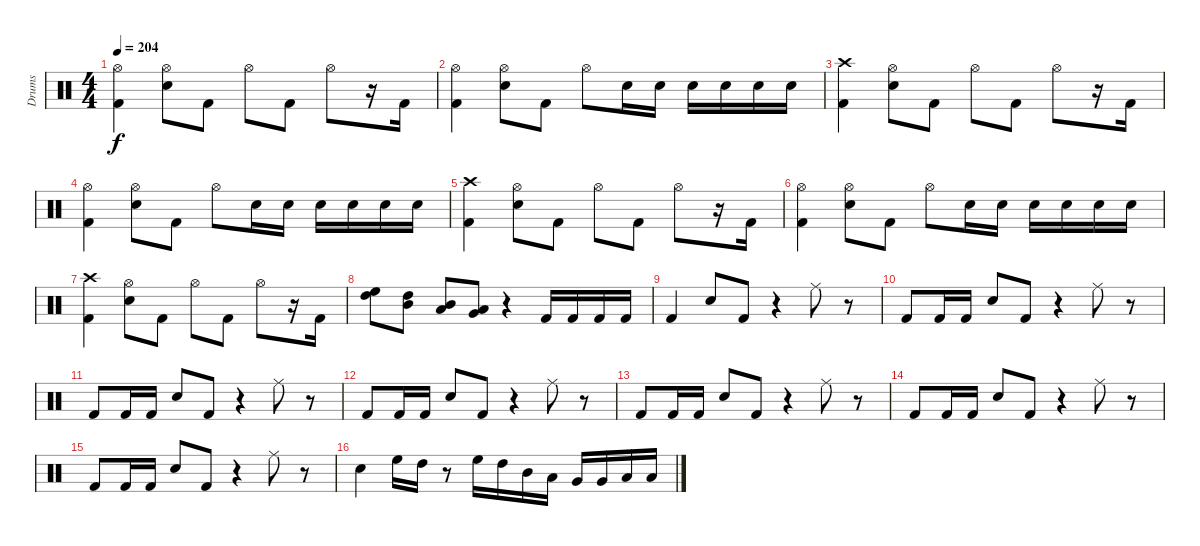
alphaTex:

\track ("Drums" "Drums") {instrument percussion}
\staff {score}
\articulation defaults
\ts (4 4)
\tempo 204
\clef neutral
\ks c
("Hi-Hat (open)" "Kick (hit) 2").4{dy f} ("Hi-Hat (open)" "Snare (hit) 2").8 "Kick (hit) 2".8 "Hi-Hat (open)".8 "Kick (hit) 2".8 "Hi-Hat (open)".8 r.16 "Kick (hit) 2".16 |
("Hi-Hat (open)" "Kick (hit) 2").4 ("Hi-Hat (open)" "Snare (hit) 2").8 "Kick (hit) 2".8 "Hi-Hat (open)".8 "Snare (hit) 2".16 "Snare (hit) 2".16 "Snare (hit) 2".16 "Snare (hit) 2".16 "Snare (hit) 2".16 "Snare (hit) 2".16 |
("Crash high (hit)" "Kick (hit) 2").4 ("Hi-Hat (open)" "Snare (hit) 2").8 "Kick (hit) 2".8 "Hi-Hat (open)".8 "Kick (hit) 2".8 "Hi-Hat (open)".8 r.16 "Kick (hit) 2".16 |
("Hi-Hat (open)" "Kick (hit) 2").4 ("Hi-Hat (open)" "Snare (hit) 2").8 "Kick (hit) 2".8 "Hi-Hat (open)".8 "Snare (hit) 2".16 "Snare (hit) 2".16 "Snare (hit) 2".16 "Snare (hit) 2".16 "Snare (hit) 2".16 "Snare (hit) 2".16 |
("Crash high (hit)" "Kick (hit) 2").4 ("Hi-Hat (open)" "Snare (hit) 2").8 "Kick (hit) 2".8 "Hi-Hat (open)".8 "Kick (hit) 2".8 "Hi-Hat (open)".8 r.16 "Kick (hit) 2".16 |
("Hi-Hat (open)" "Kick (hit) 2").4 ("Hi-Hat (open)" "Snare (hit) 2").8 "Kick (hit) 2".8 "Hi-Hat (open)".8 "Snare (hit) 2".16 "Snare (hit) 2".16 "Snare (hit) 2".16 "Snare (hit) 2".16 "Snare (hit) 2".16 "Snare (hit) 2".16 |
("Crash high (hit)" "Kick (hit) 2").4 ("Hi-Hat (open)" "Snare (hit) 2").8 "Kick (hit) 2".8 "Hi-Hat (open)".8 "Kick (hit) 2".8 "Hi-Hat (open)".8 r.16 "Kick (hit) 2".16 |
("High Floor Tom (hit)" "High Tom (hit)").8 ("High Tom (hit)" "Mid Tom (hit)").8 ("Mid Tom (hit)" "Low Tom (hit)").8 ("Low Tom (hit)" "Very Low Tom (hit)").8 r.4 "Kick (hit) 2".16 "Kick (hit) 2".16 "Kick (hit) 2".16 "Kick (hit) 2".16 |
"Kick (hit) 2".4 "Snare (hit) 2".8 "Kick (hit) 2".8 r.4 "Ride (middle)".8 r.8 |
"Kick (hit) 2".8 "Kick (hit) 2".16 "Kick (hit) 2".16 "Snare (hit) 2".8 "Kick (hit) 2".8 r.4 "Ride (middle)".8 r.8 |
"Kick (hit) 2".8 "Kick (hit) 2".16 "Kick (hit) 2".16 "Snare (hit) 2".8 "Kick (hit) 2".8 r.4 "Ride (middle)".8 r.8 |
"Kick (hit) 2".8 "Kick (hit) 2".16 "Kick (hit) 2".16 "Snare (hit) 2".8 "Kick (hit) 2".8 r.4 "Ride (middle)".8 r.8 |
"Kick (hit) 2".8 "Kick (hit) 2".16 "Kick (hit) 2".16 "Snare (hit) 2".8 "Kick (hit) 2".8 r.4 "Ride (middle)".8 r.8 |
"Kick (hit) 2".8 "Kick (hit) 2".16 "Kick (hit) 2".16 "Snare (hit) 2".8 "Kick (hit) 2".8 r.4 "Ride (middle)".8 r.8 |
"Kick (hit) 2".8 "Kick (hit) 2".16 "Kick (hit) 2".16 "Snare (hit) 2".8 "Kick (hit) 2".8 r.4 "Ride (middle)".8 r.8 |
"Snare (hit) 2".4 "High Floor Tom (hit)".16 "High Tom (hit)".16 r.8 "High Floor Tom (hit)".16 "High Tom (hit)".16 "Mid Tom (hit)".16 "Low Tom (hit)".16 "Very Low Tom (hit)".16 "Very Low Tom (hit)".16 "Low Floor Tom (hit)".16 "Low Floor Tom (hit)".16
